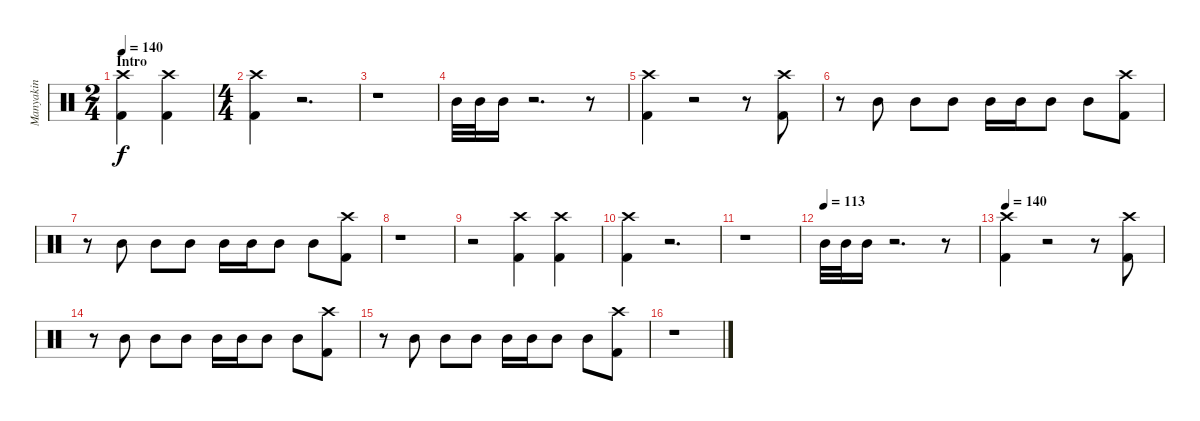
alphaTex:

\track ("Manyakin" "Manyakin") {instrument percussion}
\staff {score}
\articulation defaults
\ts (2 4)
\section ("" "Intro ")
\tempo 140
\clef neutral
\ks c
("Kick (hit) 2" "Crash high (hit)").4{dy f} ("Kick (hit) 2" "Crash high (hit)").4 |
\ts (4 4)
("Kick (hit) 2" "Crash high (hit)").4 r.2{d} |
r.1 |
"Mid Tom (hit)".32 "Mid Tom (hit)".32 "Mid Tom (hit)".16 r.2{d} r.8 |
("Kick (hit) 2" "Crash high (hit)").4 r.2 r.8 ("Kick (hit) 2" "Crash high (hit)").8 |
r.8 "Mid Tom (hit)".8 "Mid Tom (hit)".8 "Mid Tom (hit)".8 "Mid Tom (hit)".16 "Mid Tom (hit)".16 "Mid Tom (hit)".8 "Mid Tom (hit)".8 ("Kick (hit) 2" "Crash high (hit)").8 |
r.8 "Mid Tom (hit)".8 "Mid Tom (hit)".8 "Mid Tom (hit)".8 "Mid Tom (hit)".16 "Mid Tom (hit)".16 "Mid Tom (hit)".8 "Mid Tom (hit)".8 ("Kick (hit) 2" "Crash high (hit)").8 |
r.1 |
r.2 ("Kick (hit) 2" "Crash high (hit)").4 ("Kick (hit) 2" "Crash high (hit)").4 |
("Kick (hit) 2" "Crash high (hit)").4 r.2{d} |
r.1 |
\tempo (113)
"Mid Tom (hit)".32 "Mid Tom (hit)".32 "Mid Tom (hit)".16 r.2{d} r.8 |
\tempo 140
("Kick (hit) 2" "Crash high (hit)").4 r.2 r.8 ("Kick (hit) 2" "Crash high (hit)").8 |
r.8 "Mid Tom (hit)".8 "Mid Tom (hit)".8 "Mid Tom (hit)".8 "Mid Tom (hit)".16 "Mid Tom (hit)".16 "Mid Tom (hit)".8 "Mid Tom (hit)".8 ("Kick (hit) 2" "Crash high (hit)").8 |
r.8 "Mid Tom (hit)".8 "Mid Tom (hit)".8 "Mid Tom (hit)".8 "Mid Tom (hit)".16 "Mid Tom (hit)".16 "Mid Tom (hit)".8 "Mid Tom (hit)".8 ("Kick (hit) 2" "Crash high (hit)").8 |
r.1
